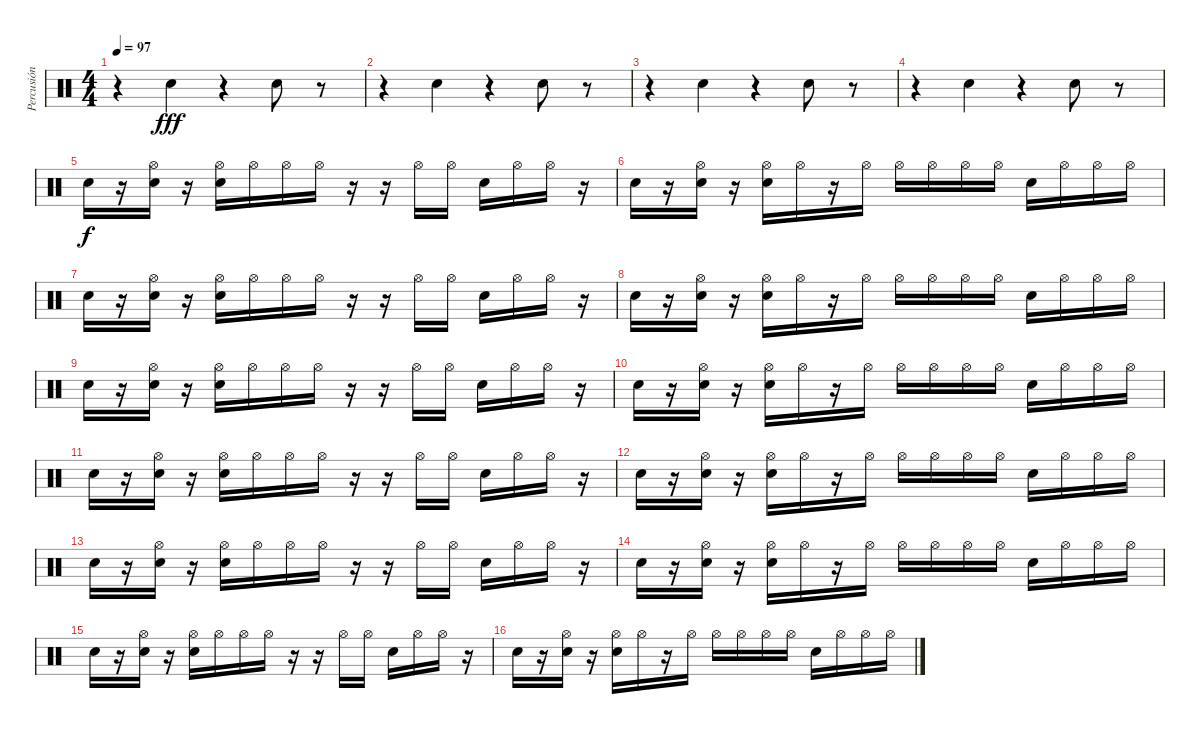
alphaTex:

\track ("Percusión" "Percusión") {instrument percussion}
\staff {score}
\articulation defaults
\ts (4 4)
\tempo 97
\clef neutral
\ks c
r.4{dy fff} "Snare (hit) 2".4 r.4 "Snare (hit) 2".8 r.8 |
r.4 "Snare (hit) 2".4 r.4 "Snare (hit) 2".8 r.8 |
r.4 "Snare (hit) 2".4 r.4 "Snare (hit) 2".8 r.8 |
r.4 "Snare (hit) 2".4 r.4 "Snare (hit) 2".8 r.8 |
"Snare (hit) 2".16{dy f} r.16 ("Hi-Hat (open)" "Snare (hit) 2").16 r.16 ("Hi-Hat (open)" "Electric Snare (hit)").16 "Hi-Hat (open)".16 "Hi-Hat (open)".16 "Hi-Hat (open)".16 r.16 r.16 "Hi-Hat (open)".16 "Hi-Hat (open)".16 "Electric Snare (hit)".16 "Hi-Hat (open)".16 "Hi-Hat (open)".16 r.16 |
"Snare (hit) 2".16 r.16 ("Hi-Hat (open)" "Snare (hit) 2").16 r.16 ("Hi-Hat (open)" "Electric Snare (hit)").16 "Hi-Hat (open)".16 r.16 "Hi-Hat (open)".16 "Hi-Hat (open)".16 "Hi-Hat (open)".16 "Hi-Hat (open)".16 "Hi-Hat (open)".16 "Electric Snare (hit)".16 "Hi-Hat (open)".16 "Hi-Hat (open)".16 "Hi-Hat (open)".16 |
"Snare (hit) 2".16 r.16 ("Hi-Hat (open)" "Snare (hit) 2").16 r.16 ("Hi-Hat (open)" "Electric Snare (hit)").16 "Hi-Hat (open)".16 "Hi-Hat (open)".16 "Hi-Hat (open)".16 r.16 r.16 "Hi-Hat (open)".16 "Hi-Hat (open)".16 "Electric Snare (hit)".16 "Hi-Hat (open)".16 "Hi-Hat (open)".16 r.16 |
"Snare (hit) 2".16 r.16 ("Hi-Hat (open)" "Snare (hit) 2").16 r.16 ("Hi-Hat (open)" "Electric Snare (hit)").16 "Hi-Hat (open)".16 r.16 "Hi-Hat (open)".16 "Hi-Hat (open)".16 "Hi-Hat (open)".16 "Hi-Hat (open)".16 "Hi-Hat (open)".16 "Electric Snare (hit)".16 "Hi-Hat (open)".16 "Hi-Hat (open)".16 "Hi-Hat (open)".16 |
"Snare (hit) 2".16 r.16 ("Hi-Hat (open)" "Snare (hit) 2").16 r.16 ("Hi-Hat (open)" "Electric Snare (hit)").16 "Hi-Hat (open)".16 "Hi-Hat (open)".16 "Hi-Hat (open)".16 r.16 r.16 "Hi-Hat (open)".16 "Hi-Hat (open)".16 "Electric Snare (hit)".16 "Hi-Hat (open)".16 "Hi-Hat (open)".16 r.16 |
"Snare (hit) 2".16 r.16 ("Hi-Hat (open)" "Snare (hit) 2").16 r.16 ("Hi-Hat (open)" "Electric Snare (hit)").16 "Hi-Hat (open)".16 r.16 "Hi-Hat (open)".16 "Hi-Hat (open)".16 "Hi-Hat (open)".16 "Hi-Hat (open)".16 "Hi-Hat (open)".16 "Electric Snare (hit)".16 "Hi-Hat (open)".16 "Hi-Hat (open)".16 "Hi-Hat (open)".16 |
"Snare (hit) 2".16 r.16 ("Hi-Hat (open)" "Snare (hit) 2").16 r.16 ("Hi-Hat (open)" "Electric Snare (hit)").16 "Hi-Hat (open)".16 "Hi-Hat (open)".16 "Hi-Hat (open)".16 r.16 r.16 "Hi-Hat (open)".16 "Hi-Hat (open)".16 "Electric Snare (hit)".16 "Hi-Hat (open)".16 "Hi-Hat (open)".16 r.16 |
"Snare (hit) 2".16 r.16 ("Hi-Hat (open)" "Snare (hit) 2").16 r.16 ("Hi-Hat (open)" "Electric Snare (hit)").16 "Hi-Hat (open)".16 r.16 "Hi-Hat (open)".16 "Hi-Hat (open)".16 "Hi-Hat (open)".16 "Hi-Hat (open)".16 "Hi-Hat (open)".16 "Electric Snare (hit)".16 "Hi-Hat (open)".16 "Hi-Hat (open)".16 "Hi-Hat (open)".16 |
"Snare (hit) 2".16 r.16 ("Hi-Hat (open)" "Snare (hit) 2").16 r.16 ("Hi-Hat (open)" "Electric Snare (hit)").16 "Hi-Hat (open)".16 "Hi-Hat (open)".16 "Hi-Hat (open)".16 r.16 r.16 "Hi-Hat (open)".16 "Hi-Hat (open)".16 "Electric Snare (hit)".16 "Hi-Hat (open)".16 "Hi-Hat (open)".16 r.16 |
"Snare (hit) 2".16 r.16 ("Hi-Hat (open)" "Snare (hit) 2").16 r.16 ("Hi-Hat (open)" "Electric Snare (hit)").16 "Hi-Hat (open)".16 r.16 "Hi-Hat (open)".16 "Hi-Hat (open)".16 "Hi-Hat (open)".16 "Hi-Hat (open)".16 "Hi-Hat (open)".16 "Electric Snare (hit)".16 "Hi-Hat (open)".16 "Hi-Hat (open)".16 "Hi-Hat (open)".16 |
"Snare (hit) 2".16 r.16 ("Hi-Hat (open)" "Snare (hit) 2").16 r.16 ("Hi-Hat (open)" "Electric Snare (hit)").16 "Hi-Hat (open)".16 "Hi-Hat (open)".16 "Hi-Hat (open)".16 r.16 r.16 "Hi-Hat (open)".16 "Hi-Hat (open)".16 "Electric Snare (hit)".16 "Hi-Hat (open)".16 "Hi-Hat (open)".16 r.16 |
"Snare (hit) 2".16 r.16 ("Hi-Hat (open)" "Snare (hit) 2").16 r.16 ("Hi-Hat (open)" "Electric Snare (hit)").16 "Hi-Hat (open)".16 r.16 "Hi-Hat (open)".16 "Hi-Hat (open)".16 "Hi-Hat (open)".16 "Hi-Hat (open)".16 "Hi-Hat (open)".16 "Electric Snare (hit)".16 "Hi-Hat (open)".16 "Hi-Hat (open)".16 "Hi-Hat (open)".16
